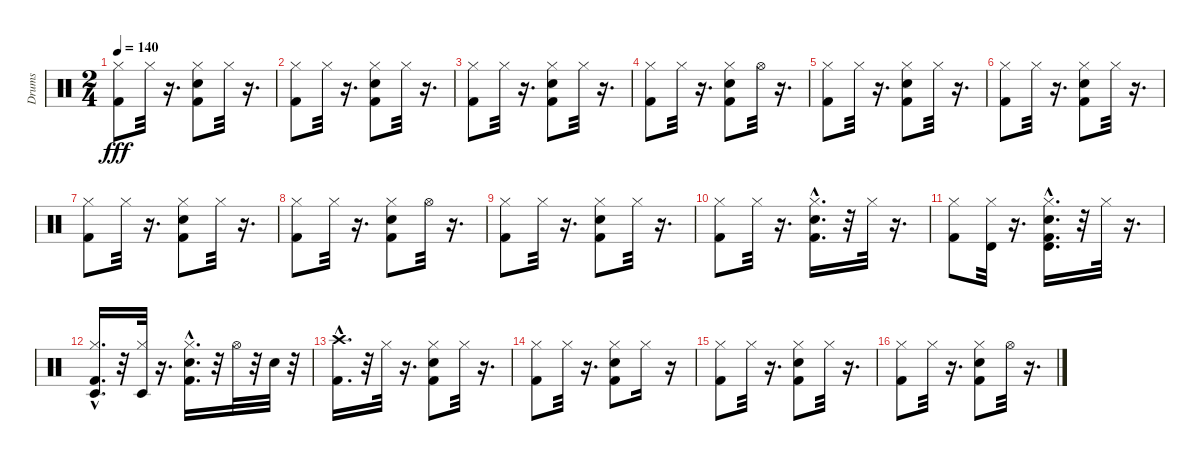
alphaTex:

\track ("Drums" "Drums") {instrument percussion}
\staff {score}
\articulation defaults
\ts (2 4)
\tempo 140
\clef neutral
\ks c
("Kick (hit) 2" "Hi-Hat (closed)").8{dy fff} "Hi-Hat (closed)".32 r.16{d} ("Snare (hit) 2" "Kick (hit) 2" "Hi-Hat (closed)").8 "Hi-Hat (closed)".32 r.16{d} |
("Kick (hit) 2" "Hi-Hat (closed)").8 "Hi-Hat (closed)".32 r.16{d} ("Snare (hit) 2" "Kick (hit) 2" "Hi-Hat (closed)").8 "Hi-Hat (closed)".32 r.16{d} |
("Kick (hit) 2" "Hi-Hat (closed)").8 "Hi-Hat (closed)".32 r.16{d} ("Kick (hit) 2" "Hi-Hat (closed)" "Snare (hit) 2").8 "Hi-Hat (closed)".32 r.16{d} |
("Kick (hit) 2" "Hi-Hat (closed)").8 "Hi-Hat (closed)".32 r.16{d} ("Kick (hit) 2" "Snare (hit) 2" "Hi-Hat (closed)").8 "Hi-Hat (open)".32 r.16{d} |
("Kick (hit) 2" "Hi-Hat (closed)").8 "Hi-Hat (closed)".32 r.16{d} ("Snare (hit) 2" "Kick (hit) 2" "Hi-Hat (closed)").8 "Hi-Hat (closed)".32 r.16{d} |
("Kick (hit) 2" "Hi-Hat (closed)").8 "Hi-Hat (closed)".32 r.16{d} ("Snare (hit) 2" "Kick (hit) 2" "Hi-Hat (closed)").8 "Hi-Hat (closed)".32 r.16{d} |
("Kick (hit) 2" "Hi-Hat (closed)").8 "Hi-Hat (closed)".32 r.16{d} ("Snare (hit) 2" "Kick (hit) 2" "Hi-Hat (closed)").8 "Hi-Hat (closed)".32 r.16{d} |
("Kick (hit) 2" "Hi-Hat (closed)").8 "Hi-Hat (closed)".32 r.16{d} ("Snare (hit) 2" "Kick (hit) 2" "Hi-Hat (closed)").8 "Hi-Hat (open)".32 r.16{d} |
("Kick (hit) 2" "Hi-Hat (closed)").8 "Hi-Hat (closed)".32 r.16{d} ("Snare (hit) 2" "Kick (hit) 2" "Hi-Hat (closed)").8 "Hi-Hat (closed)".32 r.16{d} |
("Kick (hit) 2" "Hi-Hat (closed)").8 "Hi-Hat (closed)".32 r.16{d} ("Snare (hit) 2"{hac} "Kick (hit) 2"{hac} "Hi-Hat (closed)").16{d} r.32 "Hi-Hat (closed)".32 r.16{d} |
("Kick (hit) 2" "Hi-Hat (closed)").8 ("Timbale high (hit)" "Hi-Hat (closed)").32 r.16{d} ("Timbale high (hit)" "Snare (hit) 2"{hac} "Kick (hit) 2"{hac} "Hi-Hat (closed)").16{d} r.32 "Hi-Hat (closed)".32 r.16{d} |
("Hi-Hat (closed)" "Kick (hit) 2"{hac} "Timbale low (hit)").16{d} r.32 ("Timbale low (hit)" "Hi-Hat (closed)").32 r.16{d} ("Snare (hit) 2"{hac} "Kick (hit) 2"{hac} "Hi-Hat (closed)").16{d} r.32 "Hi-Hat (open)".32 r.32 "Snare (hit) 2".32 r.32 |
("Kick (hit) 2"{hac} "Crash high (hit)").16{d} r.32 "Hi-Hat (closed)".32 r.16{d} ("Snare (hit) 2" "Hi-Hat (closed)" "Kick (hit) 2").8 "Hi-Hat (closed)".32 r.16{d} |
("Kick (hit) 2" "Hi-Hat (closed)").8 "Hi-Hat (closed)".32 r.16{d} ("Snare (hit) 2" "Kick (hit) 2" "Hi-Hat (closed)").8 "Hi-Hat (closed)".16 r.16 |
("Kick (hit) 2" "Hi-Hat (closed)").8 "Hi-Hat (closed)".32 r.16{d} ("Snare (hit) 2" "Kick (hit) 2" "Hi-Hat (closed)").8 "Hi-Hat (closed)".32 r.16{d} |
("Kick (hit) 2" "Hi-Hat (closed)").8 "Hi-Hat (closed)".32 r.16{d} ("Kick (hit) 2" "Snare (hit) 2" "Hi-Hat (closed)").8 "Hi-Hat (open)".32 r.16{d}
